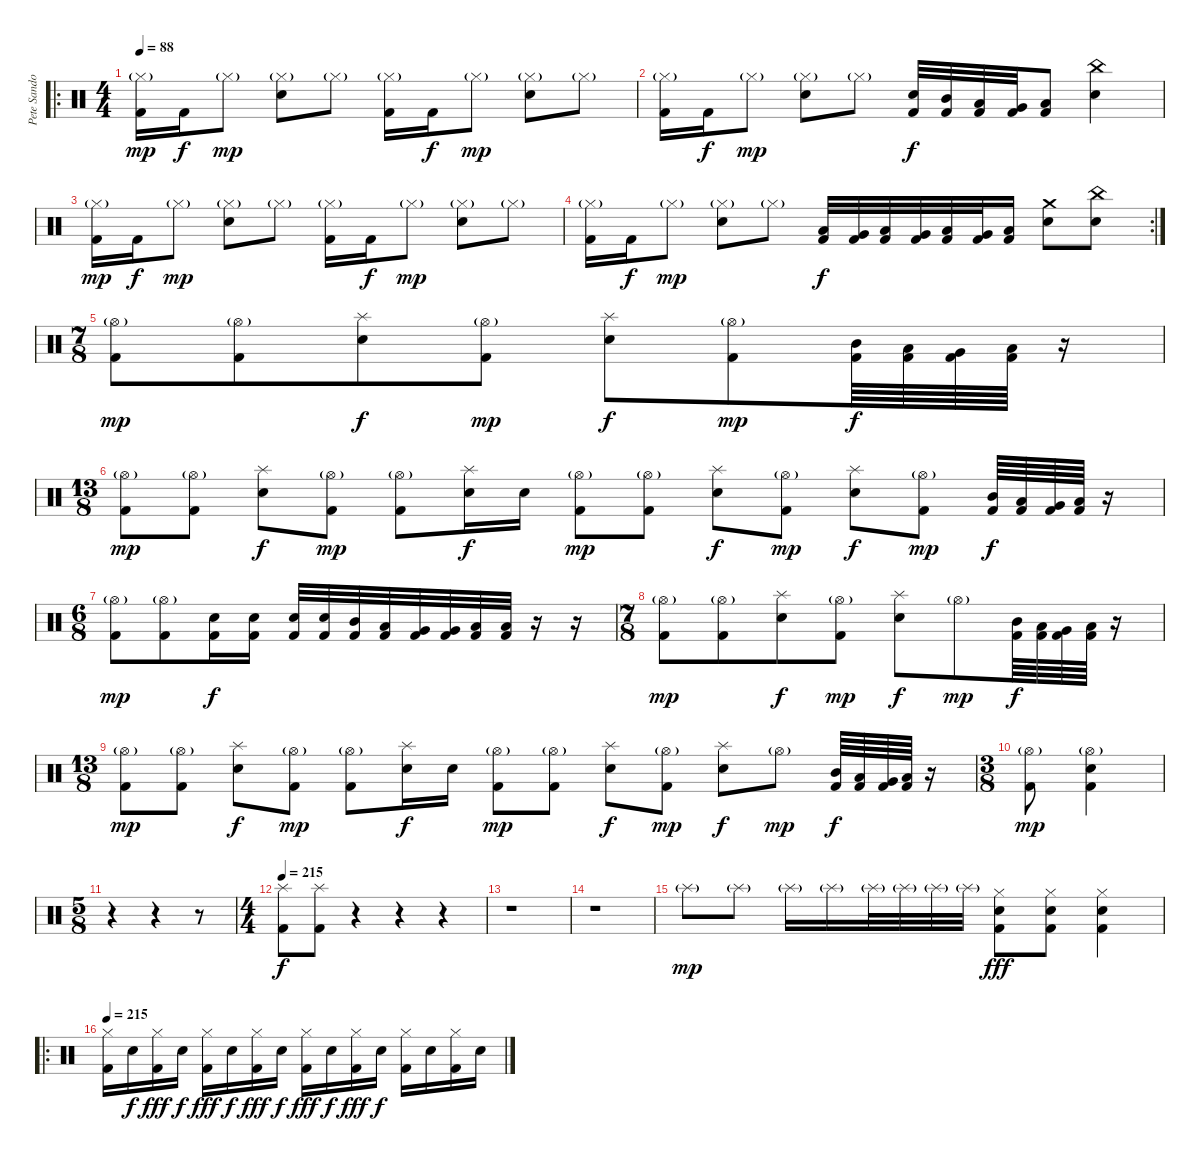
\track ("Pete Sandoval" "Pete Sando") {instrument percussion}
\staff {score}
\articulation defaults
\ro
\ts (4 4)
\tempo 88
\clef neutral
\ks c
("Hi-Hat (closed)"{g} "Kick (hit) 2").16{dy mp} "Kick (hit) 2".16{dy f} "Hi-Hat (closed)"{g}.8{dy mp} ("Hi-Hat (closed)"{g} "Snare (hit) 2").8 "Hi-Hat (closed)"{g}.8 ("Hi-Hat (closed)"{g} "Kick (hit) 2").16 "Kick (hit) 2".16{dy f} "Hi-Hat (closed)"{g}.8{dy mp} ("Hi-Hat (closed)"{g} "Snare (hit) 2").8 "Hi-Hat (closed)"{g}.8 |
("Hi-Hat (closed)"{g} "Kick (hit) 2").16 "Kick (hit) 2".16{dy f} "Hi-Hat (closed)"{g}.8{dy mp} ("Hi-Hat (closed)"{g} "Snare (hit) 2").8 "Hi-Hat (closed)"{g}.8 ("Snare (hit) 2" "Kick (hit) 2").32{dy f} ("Mid Tom (hit)" "Kick (hit) 2").32 ("Low Tom (hit)" "Kick (hit) 2").32 ("Very Low Tom (hit)" "Kick (hit) 2").32 ("Low Floor Tom (hit)" "Kick (hit) 2").8 ("China (hit)" "Snare (hit) 2").4 |
("Hi-Hat (closed)"{g} "Kick (hit) 2").16{dy mp} "Kick (hit) 2".16{dy f} "Hi-Hat (closed)"{g}.8{dy mp} ("Hi-Hat (closed)"{g} "Snare (hit) 2").8 "Hi-Hat (closed)"{g}.8 ("Hi-Hat (closed)"{g} "Kick (hit) 2").16 "Kick (hit) 2".16{dy f} "Hi-Hat (closed)"{g}.8{dy mp} ("Hi-Hat (closed)"{g} "Snare (hit) 2").8 "Hi-Hat (closed)"{g}.8 |
\rc 2
("Hi-Hat (closed)"{g} "Kick (hit) 2").16 "Kick (hit) 2".16{dy f} "Hi-Hat (closed)"{g}.8{dy mp} ("Hi-Hat (closed)"{g} "Snare (hit) 2").8 "Hi-Hat (closed)"{g}.8 ("Low Tom (hit)" "Kick (hit) 2").32{dy f} ("Very Low Tom (hit)" "Kick (hit) 2").32 ("Low Floor Tom (hit)" "Kick (hit) 2").32 ("Very Low Tom (hit)" "Kick (hit) 2").32 ("Low Tom (hit)" "Kick (hit) 2").32 ("Very Low Tom (hit)" "Kick (hit) 2").32 ("Low Floor Tom (hit)" "Kick (hit) 2").16 ("Crash medium (hit)" "Snare (hit) 2").8 ("China (hit)" "Snare (hit) 2").8 |
\ts (7 8)
("Hi-Hat (open)"{g} "Kick (hit) 2").8{dy mp} ("Hi-Hat (open)"{g} "Kick (hit) 2").8 ("Splash (hit)" "Snare (hit) 2").8{dy f} ("Hi-Hat (open)"{g} "Kick (hit) 2").8{dy mp} ("Splash (hit)" "Snare (hit) 2").8{dy f} ("Hi-Hat (open)"{g} "Kick (hit) 2").8{dy mp} ("Mid Tom (hit)" "Kick (hit) 2").64{dy f} ("Low Tom (hit)" "Kick (hit) 2").64 ("Very Low Tom (hit)" "Kick (hit) 2").64 ("Low Floor Tom (hit)" "Kick (hit) 2").64 r.16 |
\ts (13 8)
("Hi-Hat (open)"{g} "Kick (hit) 2").8{dy mp} ("Hi-Hat (open)"{g} "Kick (hit) 2").8 ("Splash (hit)" "Snare (hit) 2").8{dy f} ("Hi-Hat (open)"{g} "Kick (hit) 2").8{dy mp} ("Hi-Hat (open)"{g} "Kick (hit) 2").8 ("Splash (hit)" "Snare (hit) 2").16{dy f} "Snare (hit) 2".16 ("Hi-Hat (open)"{g} "Kick (hit) 2").8{dy mp} ("Hi-Hat (open)"{g} "Kick (hit) 2").8 ("Splash (hit)" "Snare (hit) 2").8{dy f} ("Hi-Hat (open)"{g} "Kick (hit) 2").8{dy mp} ("Splash (hit)" "Snare (hit) 2").8{dy f} ("Hi-Hat (open)"{g} "Kick (hit) 2").8{dy mp} ("Mid Tom (hit)" "Kick (hit) 2").64{dy f} ("Low Tom (hit)" "Kick (hit) 2").64 ("Very Low Tom (hit)" "Kick (hit) 2").64 ("Low Floor Tom (hit)" "Kick (hit) 2").64 r.16 |
\ts (6 8)
("Hi-Hat (open)"{g} "Kick (hit) 2").8{dy mp} ("Hi-Hat (open)"{g} "Kick (hit) 2").8 ("Snare (hit) 2" "Kick (hit) 2").16{dy f} ("Snare (hit) 2" "Kick (hit) 2").16 ("Snare (hit) 2" "Kick (hit) 2").32 ("Snare (hit) 2" "Kick (hit) 2").32 ("Mid Tom (hit)" "Kick (hit) 2").32 ("Low Tom (hit)" "Kick (hit) 2").32 ("Very Low Tom (hit)" "Kick (hit) 2").32 ("Very Low Tom (hit)" "Kick (hit) 2").32 ("Low Floor Tom (hit)" "Kick (hit) 2").32 ("Low Floor Tom (hit)" "Kick (hit) 2").32 r.16 r.16 |
\ts (7 8)
("Hi-Hat (open)"{g} "Kick (hit) 2").8{dy mp} ("Hi-Hat (open)"{g} "Kick (hit) 2").8 ("Splash (hit)" "Snare (hit) 2").8{dy f} ("Hi-Hat (open)"{g} "Kick (hit) 2").8{dy mp} ("Splash (hit)" "Snare (hit) 2").8{dy f} "Hi-Hat (open)"{g}.8{dy mp} ("Mid Tom (hit)" "Kick (hit) 2").64{dy f} ("Low Tom (hit)" "Kick (hit) 2").64 ("Very Low Tom (hit)" "Kick (hit) 2").64 ("Low Floor Tom (hit)" "Kick (hit) 2").64 r.16 |
\ts (13 8)
("Hi-Hat (open)"{g} "Kick (hit) 2").8{dy mp} ("Hi-Hat (open)"{g} "Kick (hit) 2").8 ("Splash (hit)" "Snare (hit) 2").8{dy f} ("Hi-Hat (open)"{g} "Kick (hit) 2").8{dy mp} ("Hi-Hat (open)"{g} "Kick (hit) 2").8 ("Splash (hit)" "Snare (hit) 2").16{dy f} "Snare (hit) 2".16 ("Hi-Hat (open)"{g} "Kick (hit) 2").8{dy mp} ("Hi-Hat (open)"{g} "Kick (hit) 2").8 ("Splash (hit)" "Snare (hit) 2").8{dy f} ("Hi-Hat (open)"{g} "Kick (hit) 2").8{dy mp} ("Splash (hit)" "Snare (hit) 2").8{dy f} "Hi-Hat (open)"{g}.8{dy mp} ("Mid Tom (hit)" "Kick (hit) 2").64{dy f} ("Low Tom (hit)" "Kick (hit) 2").64 ("Very Low Tom (hit)" "Kick (hit) 2").64 ("Low Floor Tom (hit)" "Kick (hit) 2").64 r.16 |
\ts (3 8)
("Hi-Hat (open)"{g} "Kick (hit) 2").8{dy mp} ("Hi-Hat (open)"{g} "Snare (hit) 2" "Kick (hit) 2").4 |
\ts (5 8)
r.4 r.4 r.8 |
\ts (4 4)
\tempo 215
("Splash (hit)" "Kick (hit) 2").8{dy f} ("Splash (hit)" "Kick (hit) 2").8 r.4 r.4 r.4 |
r.1 |
r.1 |
"Splash (hit)"{g}.8{dy mp} "Splash (hit)"{g}.8 "Splash (hit)"{g}.16 "Splash (hit)"{g}.16 "Splash (hit)"{g}.32 "Splash (hit)"{g}.32 "Splash (hit)"{g}.32 "Splash (hit)"{g}.32 ("Hi-Hat (closed)" "Snare (hit) 2" "Kick (hit) 2").8{dy fff} ("Hi-Hat (closed)" "Snare (hit) 2" "Kick (hit) 2").8 ("Hi-Hat (closed)" "Snare (hit) 2" "Kick (hit) 2").4 |
\ro
\tempo 215
("Hi-Hat (closed)" "Kick (hit) 2").16 "Snare (hit) 2".16{dy f} ("Hi-Hat (closed)" "Kick (hit) 2").16{dy fff} "Snare (hit) 2".16{dy f} ("Hi-Hat (closed)" "Kick (hit) 2").16{dy fff} "Snare (hit) 2".16{dy f} ("Hi-Hat (closed)" "Kick (hit) 2").16{dy fff} "Snare (hit) 2".16{dy f} ("Hi-Hat (closed)" "Kick (hit) 2").16{dy fff} "Snare (hit) 2".16{dy f} ("Hi-Hat (closed)" "Kick (hit) 2").16{dy fff} "Snare (hit) 2".16{dy f} ("Hi-Hat (closed)" "Kick (hit) 2").16 "Snare (hit) 2".16 ("Hi-Hat (closed)" "Kick (hit) 2").16 "Snare (hit) 2".16
